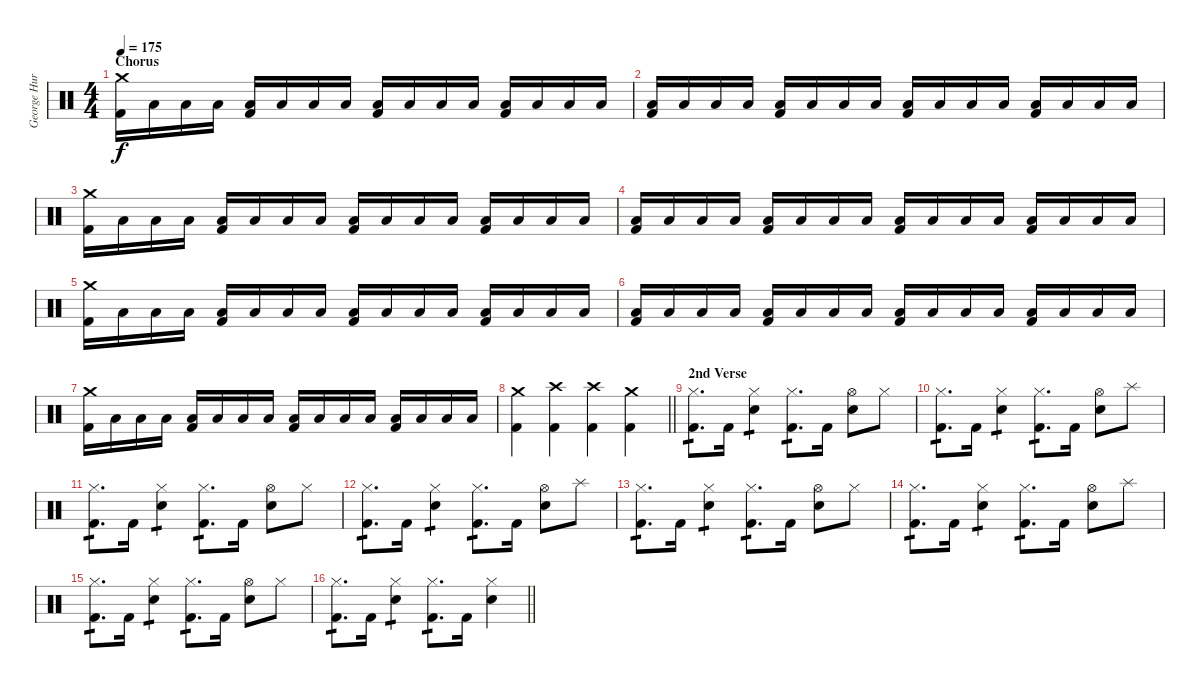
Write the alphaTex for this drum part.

\track ("George Hurley [Drums]" "George Hur") {instrument percussion}
\staff {score}
\articulation defaults
\ts (4 4)
\section ("" "Chorus")
\tempo 175
\clef neutral
\ks c
("Crash medium (hit)" "Kick (hit) 2").16{dy f} "Low Tom (hit)".16 "Low Tom (hit)".16 "Low Tom (hit)".16 ("Low Tom (hit)" "Kick (hit) 2").16 "Low Tom (hit)".16 "Low Tom (hit)".16 "Low Tom (hit)".16 ("Low Tom (hit)" "Kick (hit) 2").16 "Low Tom (hit)".16 "Low Tom (hit)".16 "Low Tom (hit)".16 ("Low Tom (hit)" "Kick (hit) 2").16 "Low Tom (hit)".16 "Low Tom (hit)".16 "Low Tom (hit)".16 |
("Low Tom (hit)" "Kick (hit) 2").16 "Low Tom (hit)".16 "Low Tom (hit)".16 "Low Tom (hit)".16 ("Low Tom (hit)" "Kick (hit) 2").16 "Low Tom (hit)".16 "Low Tom (hit)".16 "Low Tom (hit)".16 ("Low Tom (hit)" "Kick (hit) 2").16 "Low Tom (hit)".16 "Low Tom (hit)".16 "Low Tom (hit)".16 ("Low Tom (hit)" "Kick (hit) 2").16 "Low Tom (hit)".16 "Low Tom (hit)".16 "Low Tom (hit)".16 |
("Crash medium (hit)" "Kick (hit) 2").16 "Low Tom (hit)".16 "Low Tom (hit)".16 "Low Tom (hit)".16 ("Low Tom (hit)" "Kick (hit) 2").16 "Low Tom (hit)".16 "Low Tom (hit)".16 "Low Tom (hit)".16 ("Low Tom (hit)" "Kick (hit) 2").16 "Low Tom (hit)".16 "Low Tom (hit)".16 "Low Tom (hit)".16 ("Low Tom (hit)" "Kick (hit) 2").16 "Low Tom (hit)".16 "Low Tom (hit)".16 "Low Tom (hit)".16 |
("Low Tom (hit)" "Kick (hit) 2").16 "Low Tom (hit)".16 "Low Tom (hit)".16 "Low Tom (hit)".16 ("Low Tom (hit)" "Kick (hit) 2").16 "Low Tom (hit)".16 "Low Tom (hit)".16 "Low Tom (hit)".16 ("Low Tom (hit)" "Kick (hit) 2").16 "Low Tom (hit)".16 "Low Tom (hit)".16 "Low Tom (hit)".16 ("Low Tom (hit)" "Kick (hit) 2").16 "Low Tom (hit)".16 "Low Tom (hit)".16 "Low Tom (hit)".16 |
("Crash medium (hit)" "Kick (hit) 2").16 "Low Tom (hit)".16 "Low Tom (hit)".16 "Low Tom (hit)".16 ("Low Tom (hit)" "Kick (hit) 2").16 "Low Tom (hit)".16 "Low Tom (hit)".16 "Low Tom (hit)".16 ("Low Tom (hit)" "Kick (hit) 2").16 "Low Tom (hit)".16 "Low Tom (hit)".16 "Low Tom (hit)".16 ("Low Tom (hit)" "Kick (hit) 2").16 "Low Tom (hit)".16 "Low Tom (hit)".16 "Low Tom (hit)".16 |
("Low Tom (hit)" "Kick (hit) 2").16 "Low Tom (hit)".16 "Low Tom (hit)".16 "Low Tom (hit)".16 ("Low Tom (hit)" "Kick (hit) 2").16 "Low Tom (hit)".16 "Low Tom (hit)".16 "Low Tom (hit)".16 ("Low Tom (hit)" "Kick (hit) 2").16 "Low Tom (hit)".16 "Low Tom (hit)".16 "Low Tom (hit)".16 ("Low Tom (hit)" "Kick (hit) 2").16 "Low Tom (hit)".16 "Low Tom (hit)".16 "Low Tom (hit)".16 |
("Crash medium (hit)" "Kick (hit) 2").16 "Low Tom (hit)".16 "Low Tom (hit)".16 "Low Tom (hit)".16 ("Low Tom (hit)" "Kick (hit) 2").16 "Low Tom (hit)".16 "Low Tom (hit)".16 "Low Tom (hit)".16 ("Low Tom (hit)" "Kick (hit) 2").16 "Low Tom (hit)".16 "Low Tom (hit)".16 "Low Tom (hit)".16 ("Low Tom (hit)" "Kick (hit) 2").16 "Low Tom (hit)".16 "Low Tom (hit)".16 "Low Tom (hit)".16 |
\barLineRight lightlight
("Crash medium (hit)" "Kick (hit) 2").4 ("Crash high (hit)" "Kick (hit) 2").4 ("Crash high (hit)" "Kick (hit) 2").4 ("Crash medium (hit)" "Kick (hit) 2").4 |
\section ("" "2nd Verse")
("Hi-Hat (closed)" "Kick (hit) 2").8{d tp 1} "Kick (hit) 2".16 ("Hi-Hat (closed)" "Electric Snare (hit)").4{tp 1} ("Hi-Hat (closed)" "Kick (hit) 2").8{d tp 1} "Kick (hit) 2".16 ("Hi-Hat (open)" "Electric Snare (hit)").8 "Hi-Hat (closed)".8 |
("Hi-Hat (closed)" "Kick (hit) 2").8{d tp 1} "Kick (hit) 2".16 ("Hi-Hat (closed)" "Electric Snare (hit)").4{tp 1} ("Hi-Hat (closed)" "Kick (hit) 2").8{d tp 1} "Kick (hit) 2".16 ("Hi-Hat (open)" "Electric Snare (hit)").8 "Splash (hit)".8 |
("Hi-Hat (closed)" "Kick (hit) 2").8{d tp 1} "Kick (hit) 2".16 ("Hi-Hat (closed)" "Electric Snare (hit)").4{tp 1} ("Hi-Hat (closed)" "Kick (hit) 2").8{d tp 1} "Kick (hit) 2".16 ("Hi-Hat (open)" "Electric Snare (hit)").8 "Hi-Hat (closed)".8 |
("Hi-Hat (closed)" "Kick (hit) 2").8{d tp 1} "Kick (hit) 2".16 ("Hi-Hat (closed)" "Electric Snare (hit)").4{tp 1} ("Hi-Hat (closed)" "Kick (hit) 2").8{d tp 1} "Kick (hit) 2".16 ("Hi-Hat (open)" "Electric Snare (hit)").8 "Splash (hit)".8 |
("Hi-Hat (closed)" "Kick (hit) 2").8{d tp 1} "Kick (hit) 2".16 ("Hi-Hat (closed)" "Electric Snare (hit)").4{tp 1} ("Hi-Hat (closed)" "Kick (hit) 2").8{d tp 1} "Kick (hit) 2".16 ("Hi-Hat (open)" "Electric Snare (hit)").8 "Hi-Hat (closed)".8 |
("Hi-Hat (closed)" "Kick (hit) 2").8{d tp 1} "Kick (hit) 2".16 ("Hi-Hat (closed)" "Electric Snare (hit)").4{tp 1} ("Hi-Hat (closed)" "Kick (hit) 2").8{d tp 1} "Kick (hit) 2".16 ("Hi-Hat (open)" "Electric Snare (hit)").8 "Splash (hit)".8 |
("Hi-Hat (closed)" "Kick (hit) 2").8{d tp 1} "Kick (hit) 2".16 ("Hi-Hat (closed)" "Electric Snare (hit)").4{tp 1} ("Hi-Hat (closed)" "Kick (hit) 2").8{d tp 1} "Kick (hit) 2".16 ("Hi-Hat (open)" "Electric Snare (hit)").8 "Hi-Hat (closed)".8 |
\barLineRight lightlight
("Hi-Hat (closed)" "Kick (hit) 2").8{d tp 1} "Kick (hit) 2".16 ("Hi-Hat (closed)" "Electric Snare (hit)").4{tp 1} ("Hi-Hat (closed)" "Kick (hit) 2").8{d tp 1} "Kick (hit) 2".16 ("Hi-Hat (closed)" "Electric Snare (hit)").4
